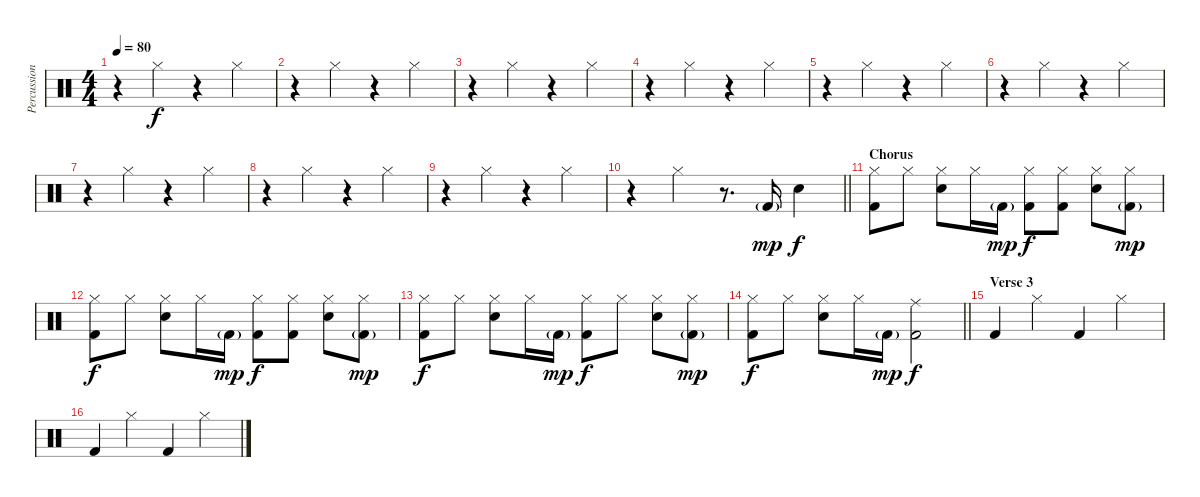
\track ("Percussion" "Percussion") {instrument percussion}
\staff {score}
\articulation defaults
\ts (4 4)
\tempo 80
\clef neutral
\ks c
r.4{dy f} "Hi-Hat (closed)".4 r.4 "Hi-Hat (closed)".4 |
r.4 "Hi-Hat (closed)".4 r.4 "Hi-Hat (closed)".4 |
r.4 "Hi-Hat (closed)".4 r.4 "Hi-Hat (closed)".4 |
r.4 "Hi-Hat (closed)".4 r.4 "Hi-Hat (closed)".4 |
r.4 "Hi-Hat (closed)".4 r.4 "Hi-Hat (closed)".4 |
r.4 "Hi-Hat (closed)".4 r.4 "Hi-Hat (closed)".4 |
r.4 "Hi-Hat (closed)".4 r.4 "Hi-Hat (closed)".4 |
r.4 "Hi-Hat (closed)".4 r.4 "Hi-Hat (closed)".4 |
r.4 "Hi-Hat (closed)".4 r.4 "Hi-Hat (closed)".4 |
\barLineRight lightlight
r.4 "Hi-Hat (closed)".4 r.8{d} "Kick (hit) 2"{g}.16{dy mp} "Snare (hit) 2".4{dy f} |
\section ("" "Chorus")
("Hi-Hat (closed)" "Kick (hit) 2").8 "Hi-Hat (closed)".8 ("Hi-Hat (closed)" "Snare (hit) 2").8 "Hi-Hat (closed)".16 "Kick (hit) 2"{g}.16{dy mp} ("Hi-Hat (closed)" "Kick (hit) 2").8{dy f} ("Hi-Hat (closed)" "Kick (hit) 2").8 ("Hi-Hat (closed)" "Snare (hit) 2").8 ("Hi-Hat (closed)" "Kick (hit) 2"{g}).8{dy mp} |
("Hi-Hat (closed)" "Kick (hit) 2").8{dy f} "Hi-Hat (closed)".8 ("Hi-Hat (closed)" "Snare (hit) 2").8 "Hi-Hat (closed)".16 "Kick (hit) 2"{g}.16{dy mp} ("Hi-Hat (closed)" "Kick (hit) 2").8{dy f} ("Hi-Hat (closed)" "Kick (hit) 2").8 ("Hi-Hat (closed)" "Snare (hit) 2").8 ("Hi-Hat (closed)" "Kick (hit) 2"{g}).8{dy mp} |
("Hi-Hat (closed)" "Kick (hit) 2").8{dy f} "Hi-Hat (closed)".8 ("Hi-Hat (closed)" "Snare (hit) 2").8 "Hi-Hat (closed)".16 "Kick (hit) 2"{g}.16{dy mp} ("Hi-Hat (closed)" "Kick (hit) 2").8{dy f} "Hi-Hat (closed)".8 ("Hi-Hat (closed)" "Snare (hit) 2").8 ("Hi-Hat (closed)" "Kick (hit) 2"{g}).8{dy mp} |
\barLineRight lightlight
("Hi-Hat (closed)" "Kick (hit) 2").8{dy f} "Hi-Hat (closed)".8 ("Hi-Hat (closed)" "Snare (hit) 2").8 "Hi-Hat (closed)".16 "Kick (hit) 2"{g}.16{dy mp} ("Ride (middle)" "Kick (hit) 2").2{dy f} |
\section ("" "Verse 3")
"Kick (hit) 2".4 "Hi-Hat (closed)".4 "Kick (hit) 2".4 "Hi-Hat (closed)".4 |
"Kick (hit) 2".4 "Hi-Hat (closed)".4 "Kick (hit) 2".4 "Hi-Hat (closed)".4
